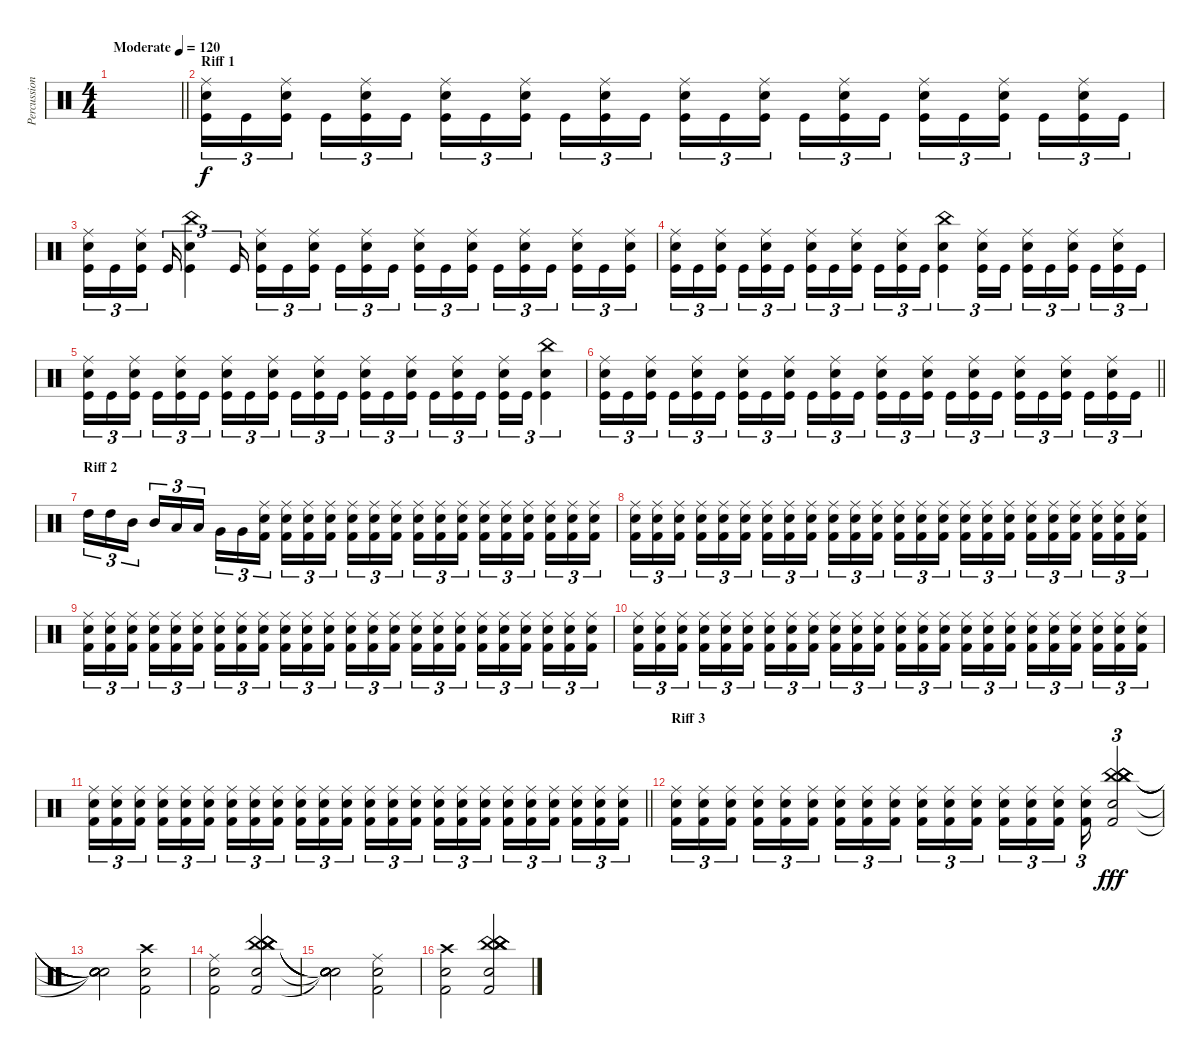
\track ("Percussions" "Percussion") {instrument percussion}
\staff {score}
\articulation defaults
\ts (4 4)
\tempo (120 "Moderate")
\clef neutral
\barLineRight lightlight
\ks c
|
\section ("" "Riff 1")
("Ride (middle)" "Electric Snare (hit)" "Kick (hit)").16{tu (3 2)} "Kick (hit)".16{tu (3 2)} ("Ride (middle)" "Electric Snare (hit)" "Kick (hit)").16{tu (3 2) beam splitsecondary} "Kick (hit)".16{tu (3 2)} ("Ride (middle)" "Electric Snare (hit)" "Kick (hit)").16{tu (3 2)} "Kick (hit)".16{tu (3 2)} ("Ride (middle)" "Electric Snare (hit)" "Kick (hit)").16{tu (3 2)} "Kick (hit)".16{tu (3 2)} ("Ride (middle)" "Electric Snare (hit)" "Kick (hit)").16{tu (3 2) beam splitsecondary} "Kick (hit)".16{tu (3 2)} ("Ride (middle)" "Electric Snare (hit)" "Kick (hit)").16{tu (3 2)} "Kick (hit)".16{tu (3 2)} ("Ride (middle)" "Electric Snare (hit)" "Kick (hit)").16{tu (3 2)} "Kick (hit)".16{tu (3 2)} ("Ride (middle)" "Electric Snare (hit)" "Kick (hit)").16{tu (3 2) beam splitsecondary} "Kick (hit)".16{tu (3 2)} ("Ride (middle)" "Electric Snare (hit)" "Kick (hit)").16{tu (3 2)} "Kick (hit)".16{tu (3 2)} ("Ride (middle)" "Electric Snare (hit)" "Kick (hit)").16{tu (3 2)} "Kick (hit)".16{tu (3 2)} ("Ride (middle)" "Electric Snare (hit)" "Kick (hit)").16{tu (3 2) beam splitsecondary} "Kick (hit)".16{tu (3 2)} ("Ride (middle)" "Electric Snare (hit)" "Kick (hit)").16{tu (3 2)} "Kick (hit)".16{tu (3 2)} |
("Ride (middle)" "Electric Snare (hit)" "Kick (hit)").16{tu (3 2)} "Kick (hit)".16{tu (3 2)} ("Ride (middle)" "Electric Snare (hit)" "Kick (hit)").16{tu (3 2) beam splitsecondary} "Kick (hit)".16{tu (3 2)} ("China (hit)" "Electric Snare (hit)" "Kick (hit)").4{tu (3 2)} "Kick (hit)".16{tu (3 2) beam splitsecondary} ("Ride (middle)" "Electric Snare (hit)" "Kick (hit)").16{tu (3 2)} "Kick (hit)".16{tu (3 2)} ("Ride (middle)" "Electric Snare (hit)" "Kick (hit)").16{tu (3 2)} "Kick (hit)".16{tu (3 2)} ("Ride (middle)" "Electric Snare (hit)" "Kick (hit)").16{tu (3 2)} "Kick (hit)".16{tu (3 2) beam splitsecondary} ("Ride (middle)" "Electric Snare (hit)" "Kick (hit)").16{tu (3 2)} "Kick (hit)".16{tu (3 2)} ("Ride (middle)" "Electric Snare (hit)" "Kick (hit)").16{tu (3 2)} "Kick (hit)".16{tu (3 2)} ("Ride (middle)" "Electric Snare (hit)" "Kick (hit)").16{tu (3 2)} "Kick (hit)".16{tu (3 2) beam splitsecondary} ("Ride (middle)" "Electric Snare (hit)" "Kick (hit)").16{tu (3 2)} "Kick (hit)".16{tu (3 2)} ("Ride (middle)" "Electric Snare (hit)" "Kick (hit)").16{tu (3 2)} |
("Ride (middle)" "Electric Snare (hit)" "Kick (hit)").16{tu (3 2)} "Kick (hit)".16{tu (3 2)} ("Ride (middle)" "Electric Snare (hit)" "Kick (hit)").16{tu (3 2) beam splitsecondary} "Kick (hit)".16{tu (3 2)} ("Ride (middle)" "Electric Snare (hit)" "Kick (hit)").16{tu (3 2)} "Kick (hit)".16{tu (3 2)} ("Ride (middle)" "Electric Snare (hit)" "Kick (hit)").16{tu (3 2)} "Kick (hit)".16{tu (3 2)} ("Ride (middle)" "Electric Snare (hit)" "Kick (hit)").16{tu (3 2) beam splitsecondary} "Kick (hit)".16{tu (3 2)} ("Ride (middle)" "Electric Snare (hit)" "Kick (hit)").16{tu (3 2)} "Kick (hit)".16{tu (3 2)} ("China (hit)" "Electric Snare (hit)" "Kick (hit)").4{tu (3 2)} ("Ride (middle)" "Electric Snare (hit)" "Kick (hit)").16{tu (3 2)} "Kick (hit)".16{tu (3 2)} ("Ride (middle)" "Electric Snare (hit)" "Kick (hit)").16{tu (3 2)} "Kick (hit)".16{tu (3 2)} ("Ride (middle)" "Electric Snare (hit)" "Kick (hit)").16{tu (3 2) beam splitsecondary} "Kick (hit)".16{tu (3 2)} ("Ride (middle)" "Electric Snare (hit)" "Kick (hit)").16{tu (3 2)} "Kick (hit)".16{tu (3 2)} |
("Ride (middle)" "Electric Snare (hit)" "Kick (hit)").16{tu (3 2)} "Kick (hit)".16{tu (3 2)} ("Ride (middle)" "Electric Snare (hit)" "Kick (hit)").16{tu (3 2) beam splitsecondary} "Kick (hit)".16{tu (3 2)} ("Ride (middle)" "Electric Snare (hit)" "Kick (hit)").16{tu (3 2)} "Kick (hit)".16{tu (3 2)} ("Ride (middle)" "Electric Snare (hit)" "Kick (hit)").16{tu (3 2)} "Kick (hit)".16{tu (3 2)} ("Ride (middle)" "Electric Snare (hit)" "Kick (hit)").16{tu (3 2) beam splitsecondary} "Kick (hit)".16{tu (3 2)} ("Ride (middle)" "Electric Snare (hit)" "Kick (hit)").16{tu (3 2)} "Kick (hit)".16{tu (3 2)} ("Ride (middle)" "Electric Snare (hit)" "Kick (hit)").16{tu (3 2)} "Kick (hit)".16{tu (3 2)} ("Ride (middle)" "Electric Snare (hit)" "Kick (hit)").16{tu (3 2) beam splitsecondary} "Kick (hit)".16{tu (3 2)} ("Ride (middle)" "Electric Snare (hit)" "Kick (hit)").16{tu (3 2)} "Kick (hit)".16{tu (3 2)} ("Ride (middle)" "Electric Snare (hit)" "Kick (hit)").16{tu (3 2)} "Kick (hit)".16{tu (3 2)} ("China (hit)" "Electric Snare (hit)" "Kick (hit)").4{tu (3 2)} |
\barLineRight lightlight
("Ride (middle)" "Electric Snare (hit)" "Kick (hit)").16{tu (3 2)} "Kick (hit)".16{tu (3 2)} ("Ride (middle)" "Electric Snare (hit)" "Kick (hit)").16{tu (3 2) beam splitsecondary} "Kick (hit)".16{tu (3 2)} ("Ride (middle)" "Electric Snare (hit)" "Kick (hit)").16{tu (3 2)} "Kick (hit)".16{tu (3 2)} ("Ride (middle)" "Electric Snare (hit)" "Kick (hit)").16{tu (3 2)} "Kick (hit)".16{tu (3 2)} ("Ride (middle)" "Electric Snare (hit)" "Kick (hit)").16{tu (3 2) beam splitsecondary} "Kick (hit)".16{tu (3 2)} ("Ride (middle)" "Electric Snare (hit)" "Kick (hit)").16{tu (3 2)} "Kick (hit)".16{tu (3 2)} ("Ride (middle)" "Electric Snare (hit)" "Kick (hit)").16{tu (3 2)} "Kick (hit)".16{tu (3 2)} ("Ride (middle)" "Electric Snare (hit)" "Kick (hit)").16{tu (3 2) beam splitsecondary} "Kick (hit)".16{tu (3 2)} ("Ride (middle)" "Electric Snare (hit)" "Kick (hit)").16{tu (3 2)} "Kick (hit)".16{tu (3 2)} ("Ride (middle)" "Electric Snare (hit)" "Kick (hit)").16{tu (3 2)} "Kick (hit)".16{tu (3 2)} ("Ride (middle)" "Electric Snare (hit)" "Kick (hit)").16{tu (3 2) beam splitsecondary} "Kick (hit)".16{tu (3 2)} ("Ride (middle)" "Electric Snare (hit)" "Kick (hit)").16{tu (3 2)} "Kick (hit)".16{tu (3 2)} |
\section ("" "Riff 2")
"High Tom (hit)".16{tu (3 2)} "High Tom (hit)".16{tu (3 2)} "Mid Tom (hit)".16{tu (3 2) beam splitsecondary} "Mid Tom (hit)".16{tu (3 2)} "Low Tom (hit)".16{tu (3 2)} "Low Tom (hit)".16{tu (3 2)} "Very Low Tom (hit)".16{tu (3 2)} "Very Low Tom (hit)".16{tu (3 2)} ("Kick (hit) 2" "Ride (middle)" "Electric Snare (hit)").16{tu (3 2) beam splitsecondary} ("Kick (hit) 2" "Ride (middle)" "Electric Snare (hit)").16{tu (3 2)} ("Kick (hit) 2" "Ride (middle)" "Electric Snare (hit)").16{tu (3 2)} ("Kick (hit) 2" "Ride (middle)" "Electric Snare (hit)").16{tu (3 2)} ("Kick (hit) 2" "Ride (middle)" "Electric Snare (hit)").16{tu (3 2)} ("Kick (hit) 2" "Ride (middle)" "Electric Snare (hit)").16{tu (3 2)} ("Kick (hit) 2" "Ride (middle)" "Electric Snare (hit)").16{tu (3 2) beam splitsecondary} ("Kick (hit) 2" "Ride (middle)" "Electric Snare (hit)").16{tu (3 2)} ("Kick (hit) 2" "Ride (middle)" "Electric Snare (hit)").16{tu (3 2)} ("Kick (hit) 2" "Ride (middle)" "Electric Snare (hit)").16{tu (3 2)} ("Kick (hit) 2" "Ride (middle)" "Electric Snare (hit)").16{tu (3 2)} ("Kick (hit) 2" "Ride (middle)" "Electric Snare (hit)").16{tu (3 2)} ("Kick (hit) 2" "Ride (middle)" "Electric Snare (hit)").16{tu (3 2) beam splitsecondary} ("Kick (hit) 2" "Ride (middle)" "Electric Snare (hit)").16{tu (3 2)} ("Kick (hit) 2" "Ride (middle)" "Electric Snare (hit)").16{tu (3 2)} ("Kick (hit) 2" "Ride (middle)" "Electric Snare (hit)").16{tu (3 2)} |
("Kick (hit) 2" "Ride (middle)" "Electric Snare (hit)").16{tu (3 2)} ("Kick (hit) 2" "Ride (middle)" "Electric Snare (hit)").16{tu (3 2)} ("Kick (hit) 2" "Ride (middle)" "Electric Snare (hit)").16{tu (3 2) beam splitsecondary} ("Kick (hit) 2" "Ride (middle)" "Electric Snare (hit)").16{tu (3 2)} ("Kick (hit) 2" "Ride (middle)" "Electric Snare (hit)").16{tu (3 2)} ("Kick (hit) 2" "Ride (middle)" "Electric Snare (hit)").16{tu (3 2)} ("Kick (hit) 2" "Ride (middle)" "Electric Snare (hit)").16{tu (3 2)} ("Kick (hit) 2" "Ride (middle)" "Electric Snare (hit)").16{tu (3 2)} ("Kick (hit) 2" "Ride (middle)" "Electric Snare (hit)").16{tu (3 2) beam splitsecondary} ("Kick (hit) 2" "Ride (middle)" "Electric Snare (hit)").16{tu (3 2)} ("Kick (hit) 2" "Ride (middle)" "Electric Snare (hit)").16{tu (3 2)} ("Kick (hit) 2" "Ride (middle)" "Electric Snare (hit)").16{tu (3 2)} ("Kick (hit) 2" "Ride (middle)" "Electric Snare (hit)").16{tu (3 2)} ("Kick (hit) 2" "Ride (middle)" "Electric Snare (hit)").16{tu (3 2)} ("Kick (hit) 2" "Ride (middle)" "Electric Snare (hit)").16{tu (3 2) beam splitsecondary} ("Kick (hit) 2" "Ride (middle)" "Electric Snare (hit)").16{tu (3 2)} ("Kick (hit) 2" "Ride (middle)" "Electric Snare (hit)").16{tu (3 2)} ("Kick (hit) 2" "Ride (middle)" "Electric Snare (hit)").16{tu (3 2)} ("Kick (hit) 2" "Ride (middle)" "Electric Snare (hit)").16{tu (3 2)} ("Kick (hit) 2" "Ride (middle)" "Electric Snare (hit)").16{tu (3 2)} ("Kick (hit) 2" "Ride (middle)" "Electric Snare (hit)").16{tu (3 2) beam splitsecondary} ("Kick (hit) 2" "Ride (middle)" "Electric Snare (hit)").16{tu (3 2)} ("Kick (hit) 2" "Ride (middle)" "Electric Snare (hit)").16{tu (3 2)} ("Kick (hit) 2" "Ride (middle)" "Electric Snare (hit)").16{tu (3 2)} |
("Kick (hit) 2" "Ride (middle)" "Electric Snare (hit)").16{tu (3 2)} ("Kick (hit) 2" "Ride (middle)" "Electric Snare (hit)").16{tu (3 2)} ("Kick (hit) 2" "Ride (middle)" "Electric Snare (hit)").16{tu (3 2) beam splitsecondary} ("Kick (hit) 2" "Ride (middle)" "Electric Snare (hit)").16{tu (3 2)} ("Kick (hit) 2" "Ride (middle)" "Electric Snare (hit)").16{tu (3 2)} ("Kick (hit) 2" "Ride (middle)" "Electric Snare (hit)").16{tu (3 2)} ("Kick (hit) 2" "Ride (middle)" "Electric Snare (hit)").16{tu (3 2)} ("Kick (hit) 2" "Ride (middle)" "Electric Snare (hit)").16{tu (3 2)} ("Kick (hit) 2" "Ride (middle)" "Electric Snare (hit)").16{tu (3 2) beam splitsecondary} ("Kick (hit) 2" "Ride (middle)" "Electric Snare (hit)").16{tu (3 2)} ("Kick (hit) 2" "Ride (middle)" "Electric Snare (hit)").16{tu (3 2)} ("Kick (hit) 2" "Ride (middle)" "Electric Snare (hit)").16{tu (3 2)} ("Kick (hit) 2" "Ride (middle)" "Electric Snare (hit)").16{tu (3 2)} ("Kick (hit) 2" "Ride (middle)" "Electric Snare (hit)").16{tu (3 2)} ("Kick (hit) 2" "Ride (middle)" "Electric Snare (hit)").16{tu (3 2) beam splitsecondary} ("Kick (hit) 2" "Ride (middle)" "Electric Snare (hit)").16{tu (3 2)} ("Kick (hit) 2" "Ride (middle)" "Electric Snare (hit)").16{tu (3 2)} ("Kick (hit) 2" "Ride (middle)" "Electric Snare (hit)").16{tu (3 2)} ("Kick (hit) 2" "Ride (middle)" "Electric Snare (hit)").16{tu (3 2)} ("Kick (hit) 2" "Ride (middle)" "Electric Snare (hit)").16{tu (3 2)} ("Kick (hit) 2" "Ride (middle)" "Electric Snare (hit)").16{tu (3 2) beam splitsecondary} ("Kick (hit) 2" "Ride (middle)" "Electric Snare (hit)").16{tu (3 2)} ("Kick (hit) 2" "Ride (middle)" "Electric Snare (hit)").16{tu (3 2)} ("Kick (hit) 2" "Ride (middle)" "Electric Snare (hit)").16{tu (3 2)} |
("Kick (hit) 2" "Ride (middle)" "Electric Snare (hit)").16{tu (3 2)} ("Kick (hit) 2" "Ride (middle)" "Electric Snare (hit)").16{tu (3 2)} ("Kick (hit) 2" "Ride (middle)" "Electric Snare (hit)").16{tu (3 2) beam splitsecondary} ("Kick (hit) 2" "Ride (middle)" "Electric Snare (hit)").16{tu (3 2)} ("Kick (hit) 2" "Ride (middle)" "Electric Snare (hit)").16{tu (3 2)} ("Kick (hit) 2" "Ride (middle)" "Electric Snare (hit)").16{tu (3 2)} ("Kick (hit) 2" "Ride (middle)" "Electric Snare (hit)").16{tu (3 2)} ("Kick (hit) 2" "Ride (middle)" "Electric Snare (hit)").16{tu (3 2)} ("Kick (hit) 2" "Ride (middle)" "Electric Snare (hit)").16{tu (3 2) beam splitsecondary} ("Kick (hit) 2" "Ride (middle)" "Electric Snare (hit)").16{tu (3 2)} ("Kick (hit) 2" "Ride (middle)" "Electric Snare (hit)").16{tu (3 2)} ("Kick (hit) 2" "Ride (middle)" "Electric Snare (hit)").16{tu (3 2)} ("Kick (hit) 2" "Ride (middle)" "Electric Snare (hit)").16{tu (3 2)} ("Kick (hit) 2" "Ride (middle)" "Electric Snare (hit)").16{tu (3 2)} ("Kick (hit) 2" "Ride (middle)" "Electric Snare (hit)").16{tu (3 2) beam splitsecondary} ("Kick (hit) 2" "Ride (middle)" "Electric Snare (hit)").16{tu (3 2)} ("Kick (hit) 2" "Ride (middle)" "Electric Snare (hit)").16{tu (3 2)} ("Kick (hit) 2" "Ride (middle)" "Electric Snare (hit)").16{tu (3 2)} ("Kick (hit) 2" "Ride (middle)" "Electric Snare (hit)").16{tu (3 2)} ("Kick (hit) 2" "Ride (middle)" "Electric Snare (hit)").16{tu (3 2)} ("Kick (hit) 2" "Ride (middle)" "Electric Snare (hit)").16{tu (3 2) beam splitsecondary} ("Kick (hit) 2" "Ride (middle)" "Electric Snare (hit)").16{tu (3 2)} ("Kick (hit) 2" "Ride (middle)" "Electric Snare (hit)").16{tu (3 2)} ("Kick (hit) 2" "Ride (middle)" "Electric Snare (hit)").16{tu (3 2)} |
\barLineRight lightlight
("Kick (hit) 2" "Ride (middle)" "Electric Snare (hit)").16{tu (3 2)} ("Kick (hit) 2" "Ride (middle)" "Electric Snare (hit)").16{tu (3 2)} ("Kick (hit) 2" "Ride (middle)" "Electric Snare (hit)").16{tu (3 2) beam splitsecondary} ("Kick (hit) 2" "Ride (middle)" "Electric Snare (hit)").16{tu (3 2)} ("Kick (hit) 2" "Ride (middle)" "Electric Snare (hit)").16{tu (3 2)} ("Kick (hit) 2" "Ride (middle)" "Electric Snare (hit)").16{tu (3 2)} ("Kick (hit) 2" "Ride (middle)" "Electric Snare (hit)").16{tu (3 2)} ("Kick (hit) 2" "Ride (middle)" "Electric Snare (hit)").16{tu (3 2)} ("Kick (hit) 2" "Ride (middle)" "Electric Snare (hit)").16{tu (3 2) beam splitsecondary} ("Kick (hit) 2" "Ride (middle)" "Electric Snare (hit)").16{tu (3 2)} ("Kick (hit) 2" "Ride (middle)" "Electric Snare (hit)").16{tu (3 2)} ("Kick (hit) 2" "Ride (middle)" "Electric Snare (hit)").16{tu (3 2)} ("Kick (hit) 2" "Ride (middle)" "Electric Snare (hit)").16{tu (3 2)} ("Kick (hit) 2" "Ride (middle)" "Electric Snare (hit)").16{tu (3 2)} ("Kick (hit) 2" "Ride (middle)" "Electric Snare (hit)").16{tu (3 2) beam splitsecondary} ("Kick (hit) 2" "Ride (middle)" "Electric Snare (hit)").16{tu (3 2)} ("Kick (hit) 2" "Ride (middle)" "Electric Snare (hit)").16{tu (3 2)} ("Kick (hit) 2" "Ride (middle)" "Electric Snare (hit)").16{tu (3 2)} ("Kick (hit) 2" "Ride (middle)" "Electric Snare (hit)").16{tu (3 2)} ("Kick (hit) 2" "Ride (middle)" "Electric Snare (hit)").16{tu (3 2)} ("Kick (hit) 2" "Ride (middle)" "Electric Snare (hit)").16{tu (3 2) beam splitsecondary} ("Kick (hit) 2" "Ride (middle)" "Electric Snare (hit)").16{tu (3 2)} ("Kick (hit) 2" "Ride (middle)" "Electric Snare (hit)").16{tu (3 2)} ("Kick (hit) 2" "Ride (middle)" "Electric Snare (hit)").16{tu (3 2)} |
\section ("" "Riff 3")
("Kick (hit) 2" "Ride (middle)" "Electric Snare (hit)").16{tu (3 2)} ("Kick (hit) 2" "Ride (middle)" "Electric Snare (hit)").16{tu (3 2)} ("Kick (hit) 2" "Ride (middle)" "Electric Snare (hit)").16{tu (3 2) beam splitsecondary} ("Kick (hit) 2" "Ride (middle)" "Electric Snare (hit)").16{tu (3 2)} ("Kick (hit) 2" "Ride (middle)" "Electric Snare (hit)").16{tu (3 2)} ("Kick (hit) 2" "Ride (middle)" "Electric Snare (hit)").16{tu (3 2)} ("Kick (hit) 2" "Ride (middle)" "Electric Snare (hit)").16{tu (3 2)} ("Kick (hit) 2" "Ride (middle)" "Electric Snare (hit)").16{tu (3 2)} ("Kick (hit) 2" "Ride (middle)" "Electric Snare (hit)").16{tu (3 2) beam splitsecondary} ("Kick (hit) 2" "Ride (middle)" "Electric Snare (hit)").16{tu (3 2)} ("Kick (hit) 2" "Ride (middle)" "Electric Snare (hit)").16{tu (3 2)} ("Kick (hit) 2" "Ride (middle)" "Electric Snare (hit)").16{tu (3 2)} ("Kick (hit) 2" "Ride (middle)" "Electric Snare (hit)").16{tu (3 2)} ("Kick (hit) 2" "Ride (middle)" "Electric Snare (hit)").16{tu (3 2)} ("Kick (hit) 2" "Ride (middle)" "Electric Snare (hit)").16{tu (3 2) beam splitsecondary} ("Kick (hit) 2" "Ride (middle)" "Electric Snare (hit)").16{tu (3 2)} ("China (hit)" "China (hit)" "China (hit)" "China (hit)" "Electric Snare (hit)" "Kick (hit) 2").2{tu (3 2) dy fff} |
("Snare (hit)"{t} "Snare (hit)"{t} "Snare (hit)"{t} "Snare (hit)"{t} "Snare (hit)"{t} "Snare (hit)"{t}).2 ("Crash high (hit)" "Electric Snare (hit)" "Kick (hit) 2").2 |
("Ride (middle)" "Electric Snare (hit)" "Kick (hit) 2").2 ("China (hit)" "China (hit)" "China (hit)" "China (hit)" "Electric Snare (hit)" "Kick (hit) 2").2 |
("Snare (hit)"{t} "Snare (hit)"{t} "Snare (hit)"{t} "Snare (hit)"{t} "Snare (hit)"{t} "Snare (hit)"{t}).2 ("Ride (middle)" "Electric Snare (hit)" "Kick (hit) 2").2 |
("Crash high (hit)" "Electric Snare (hit)" "Kick (hit) 2").2 ("China (hit)" "China (hit)" "China (hit)" "China (hit)" "Electric Snare (hit)" "Kick (hit) 2").2
